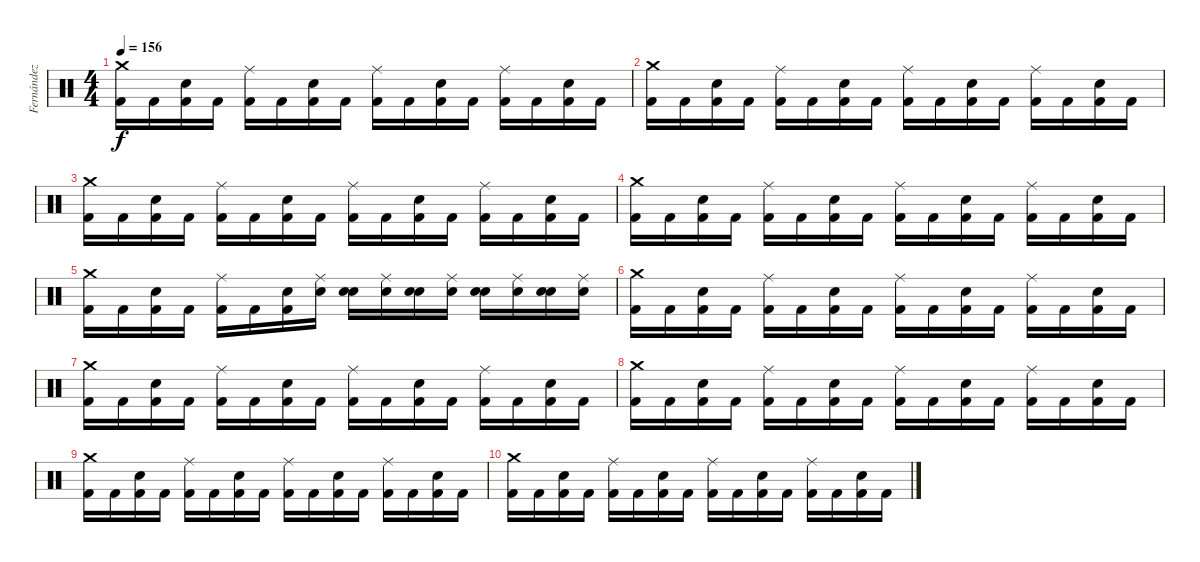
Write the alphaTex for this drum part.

\track ("Fernández" "Fernández") {instrument percussion}
\staff {score}
\articulation defaults
\ts (4 4)
\tempo 156
\clef neutral
\ks c
("Kick (hit) 2" "Crash medium (hit)").16{dy f} "Kick (hit) 2".16 ("Kick (hit) 2" "Electric Snare (hit)").16 "Kick (hit) 2".16 ("Kick (hit) 2" "Ride (middle)").16 "Kick (hit) 2".16 ("Kick (hit) 2" "Electric Snare (hit)").16 "Kick (hit) 2".16 ("Kick (hit) 2" "Ride (middle)").16 "Kick (hit) 2".16 ("Kick (hit) 2" "Electric Snare (hit)").16 "Kick (hit) 2".16 ("Kick (hit) 2" "Ride (middle)").16 "Kick (hit) 2".16 ("Kick (hit) 2" "Electric Snare (hit)").16 "Kick (hit) 2".16 |
("Kick (hit) 2" "Crash medium (hit)").16 "Kick (hit) 2".16 ("Kick (hit) 2" "Electric Snare (hit)").16 "Kick (hit) 2".16 ("Kick (hit) 2" "Ride (middle)").16 "Kick (hit) 2".16 ("Kick (hit) 2" "Electric Snare (hit)").16 "Kick (hit) 2".16 ("Kick (hit) 2" "Ride (middle)").16 "Kick (hit) 2".16 ("Kick (hit) 2" "Electric Snare (hit)").16 "Kick (hit) 2".16 ("Kick (hit) 2" "Ride (middle)").16 "Kick (hit) 2".16 ("Kick (hit) 2" "Electric Snare (hit)").16 "Kick (hit) 2".16 |
("Kick (hit) 2" "Crash medium (hit)").16 "Kick (hit) 2".16 ("Kick (hit) 2" "Electric Snare (hit)").16 "Kick (hit) 2".16 ("Kick (hit) 2" "Ride (middle)").16 "Kick (hit) 2".16 ("Kick (hit) 2" "Electric Snare (hit)").16 "Kick (hit) 2".16 ("Kick (hit) 2" "Ride (middle)").16 "Kick (hit) 2".16 ("Kick (hit) 2" "Electric Snare (hit)").16 "Kick (hit) 2".16 ("Kick (hit) 2" "Ride (middle)").16 "Kick (hit) 2".16 ("Kick (hit) 2" "Electric Snare (hit)").16 "Kick (hit) 2".16 |
("Kick (hit) 2" "Crash medium (hit)").16 "Kick (hit) 2".16 ("Kick (hit) 2" "Electric Snare (hit)").16 "Kick (hit) 2".16 ("Kick (hit) 2" "Ride (middle)").16 "Kick (hit) 2".16 ("Kick (hit) 2" "Electric Snare (hit)").16 "Kick (hit) 2".16 ("Kick (hit) 2" "Ride (middle)").16 "Kick (hit) 2".16 ("Kick (hit) 2" "Electric Snare (hit)").16 "Kick (hit) 2".16 ("Kick (hit) 2" "Ride (middle)").16 "Kick (hit) 2".16 ("Kick (hit) 2" "Electric Snare (hit)").16 "Kick (hit) 2".16 |
("Kick (hit) 2" "Crash medium (hit)").16 "Kick (hit) 2".16 ("Kick (hit) 2" "Electric Snare (hit)").16 "Kick (hit) 2".16 ("Kick (hit) 2" "Ride (middle)").16 "Kick (hit) 2".16 ("Kick (hit) 2" "Electric Snare (hit)").16 ("Electric Snare (hit)" "Ride (middle)").16 ("Electric Snare (hit)" "Electric Snare (hit)").16 ("Electric Snare (hit)" "Ride (middle)").16 ("Electric Snare (hit)" "Electric Snare (hit)").16 ("Electric Snare (hit)" "Ride (middle)").16 ("Electric Snare (hit)" "Electric Snare (hit)").16 ("Electric Snare (hit)" "Ride (middle)").16 ("Electric Snare (hit)" "Electric Snare (hit)").16 ("Electric Snare (hit)" "Ride (middle)").16 |
("Kick (hit) 2" "Crash medium (hit)").16 "Kick (hit) 2".16 ("Kick (hit) 2" "Electric Snare (hit)").16 "Kick (hit) 2".16 ("Kick (hit) 2" "Ride (middle)").16 "Kick (hit) 2".16 ("Kick (hit) 2" "Electric Snare (hit)").16 "Kick (hit) 2".16 ("Kick (hit) 2" "Ride (middle)").16 "Kick (hit) 2".16 ("Kick (hit) 2" "Electric Snare (hit)").16 "Kick (hit) 2".16 ("Kick (hit) 2" "Ride (middle)").16 "Kick (hit) 2".16 ("Kick (hit) 2" "Electric Snare (hit)").16 "Kick (hit) 2".16 |
("Kick (hit) 2" "Crash medium (hit)").16 "Kick (hit) 2".16 ("Kick (hit) 2" "Electric Snare (hit)").16 "Kick (hit) 2".16 ("Kick (hit) 2" "Ride (middle)").16 "Kick (hit) 2".16 ("Kick (hit) 2" "Electric Snare (hit)").16 "Kick (hit) 2".16 ("Kick (hit) 2" "Ride (middle)").16 "Kick (hit) 2".16 ("Kick (hit) 2" "Electric Snare (hit)").16 "Kick (hit) 2".16 ("Kick (hit) 2" "Ride (middle)").16 "Kick (hit) 2".16 ("Kick (hit) 2" "Electric Snare (hit)").16 "Kick (hit) 2".16 |
("Kick (hit) 2" "Crash medium (hit)").16 "Kick (hit) 2".16 ("Kick (hit) 2" "Electric Snare (hit)").16 "Kick (hit) 2".16 ("Kick (hit) 2" "Ride (middle)").16 "Kick (hit) 2".16 ("Kick (hit) 2" "Electric Snare (hit)").16 "Kick (hit) 2".16 ("Kick (hit) 2" "Ride (middle)").16 "Kick (hit) 2".16 ("Kick (hit) 2" "Electric Snare (hit)").16 "Kick (hit) 2".16 ("Kick (hit) 2" "Ride (middle)").16 "Kick (hit) 2".16 ("Kick (hit) 2" "Electric Snare (hit)").16 "Kick (hit) 2".16 |
("Kick (hit) 2" "Crash medium (hit)").16 "Kick (hit) 2".16 ("Kick (hit) 2" "Electric Snare (hit)").16 "Kick (hit) 2".16 ("Kick (hit) 2" "Ride (middle)").16 "Kick (hit) 2".16 ("Kick (hit) 2" "Electric Snare (hit)").16 "Kick (hit) 2".16 ("Kick (hit) 2" "Ride (middle)").16 "Kick (hit) 2".16 ("Kick (hit) 2" "Electric Snare (hit)").16 "Kick (hit) 2".16 ("Kick (hit) 2" "Ride (middle)").16 "Kick (hit) 2".16 ("Kick (hit) 2" "Electric Snare (hit)").16 "Kick (hit) 2".16 |
("Kick (hit) 2" "Crash medium (hit)").16 "Kick (hit) 2".16 ("Kick (hit) 2" "Electric Snare (hit)").16 "Kick (hit) 2".16 ("Kick (hit) 2" "Ride (middle)").16 "Kick (hit) 2".16 ("Kick (hit) 2" "Electric Snare (hit)").16 "Kick (hit) 2".16 ("Kick (hit) 2" "Ride (middle)").16 "Kick (hit) 2".16 ("Kick (hit) 2" "Electric Snare (hit)").16 "Kick (hit) 2".16 ("Kick (hit) 2" "Ride (middle)").16 "Kick (hit) 2".16 ("Kick (hit) 2" "Electric Snare (hit)").16 "Kick (hit) 2".16
